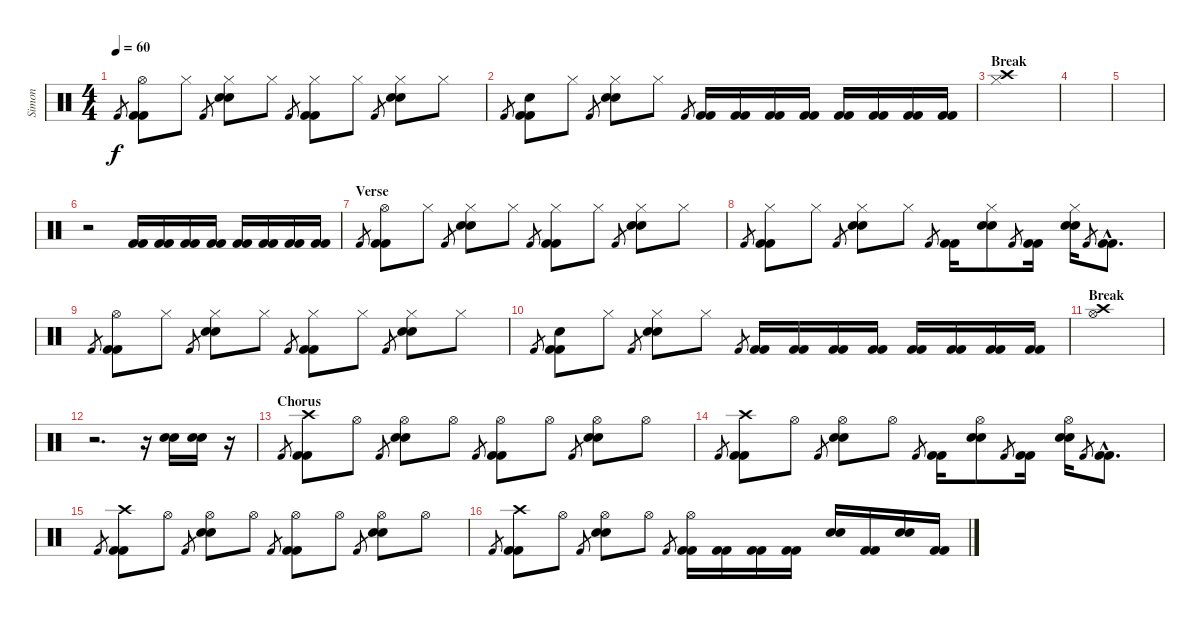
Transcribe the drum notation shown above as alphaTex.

\track ("Simon" "Simon") {instrument percussion}
\staff {score}
\articulation defaults
\ts (4 4)
\tempo 60
\clef neutral
\ks c "Kick (hit) 2".8{gr dy f}
("Hi-Hat (open)" "Kick (hit) 2" "Kick (hit) 2").8 "Hi-Hat (closed)".8 "Kick (hit) 2".8{gr} ("Hi-Hat (closed)" "Electric Snare (hit)" "Electric Snare (hit)").8 "Hi-Hat (closed)".8 "Kick (hit) 2".8{gr} ("Hi-Hat (closed)" "Kick (hit) 2" "Kick (hit) 2").8 "Hi-Hat (closed)".8 "Kick (hit) 2".8{gr} ("Hi-Hat (closed)" "Electric Snare (hit)" "Electric Snare (hit)").8 "Hi-Hat (closed)".8 |
"Kick (hit) 2".8{gr} ("Electric Snare (hit)" "Kick (hit) 2" "Kick (hit) 2").8 "Hi-Hat (closed)".8 "Kick (hit) 2".8{gr} ("Hi-Hat (closed)" "Electric Snare (hit)" "Electric Snare (hit)").8 "Hi-Hat (closed)".8 "Kick (hit) 2".8{gr} ("Kick (hit) 2" "Kick (hit) 2").16 ("Kick (hit) 2" "Kick (hit) 2").16 ("Kick (hit) 2" "Kick (hit) 2").16 ("Kick (hit) 2" "Kick (hit) 2").16 ("Kick (hit) 2" "Kick (hit) 2").16 ("Kick (hit) 2" "Kick (hit) 2").16 ("Kick (hit) 2" "Kick (hit) 2").16 ("Kick (hit) 2" "Kick (hit) 2").16 |
\section ("" "Break")
("Crash high (hit)" "Hi-Hat (closed)").1 |
|
|
r.2 ("Kick (hit) 2" "Kick (hit) 2").16 ("Kick (hit) 2" "Kick (hit) 2").16 ("Kick (hit) 2" "Kick (hit) 2").16 ("Kick (hit) 2" "Kick (hit) 2").16 ("Kick (hit) 2" "Kick (hit) 2").16 ("Kick (hit) 2" "Kick (hit) 2").16 ("Kick (hit) 2" "Kick (hit) 2").16 ("Kick (hit) 2" "Kick (hit) 2").16 |
\section ("" "Verse")
"Kick (hit) 2".8{gr} ("Hi-Hat (open)" "Kick (hit) 2" "Kick (hit) 2").8 "Hi-Hat (closed)".8 "Kick (hit) 2".8{gr} ("Hi-Hat (closed)" "Electric Snare (hit)" "Electric Snare (hit)").8 "Hi-Hat (closed)".8 "Kick (hit) 2".8{gr} ("Hi-Hat (closed)" "Kick (hit) 2" "Kick (hit) 2").8 "Hi-Hat (closed)".8 "Kick (hit) 2".8{gr} ("Hi-Hat (closed)" "Electric Snare (hit)" "Electric Snare (hit)").8 "Hi-Hat (closed)".8 |
"Kick (hit) 2".8{gr} ("Hi-Hat (closed)" "Kick (hit) 2" "Kick (hit) 2").8 "Hi-Hat (closed)".8 "Kick (hit) 2".8{gr} ("Hi-Hat (closed)" "Electric Snare (hit)" "Electric Snare (hit)").8 "Hi-Hat (closed)".8 "Kick (hit) 2".8{gr} ("Kick (hit) 2" "Kick (hit) 2").16 ("Hi-Hat (closed)" "Electric Snare (hit)" "Electric Snare (hit)").8 "Kick (hit) 2".8{gr} ("Kick (hit) 2" "Kick (hit) 2").16 ("Hi-Hat (closed)" "Electric Snare (hit)" "Electric Snare (hit)").16 "Kick (hit) 2".8{gr} ("Kick (hit) 2"{hac} "Kick (hit) 2"{hac}).8{d} |
"Kick (hit) 2".8{gr} ("Hi-Hat (open)" "Kick (hit) 2" "Kick (hit) 2").8 "Hi-Hat (closed)".8 "Kick (hit) 2".8{gr} ("Hi-Hat (closed)" "Electric Snare (hit)" "Electric Snare (hit)").8 "Hi-Hat (closed)".8 "Kick (hit) 2".8{gr} ("Hi-Hat (closed)" "Kick (hit) 2" "Kick (hit) 2").8 "Hi-Hat (closed)".8 "Kick (hit) 2".8{gr} ("Hi-Hat (closed)" "Electric Snare (hit)" "Electric Snare (hit)").8 "Hi-Hat (closed)".8 |
"Kick (hit) 2".8{gr} ("Electric Snare (hit)" "Kick (hit) 2" "Kick (hit) 2").8 "Hi-Hat (closed)".8 "Kick (hit) 2".8{gr} ("Hi-Hat (closed)" "Electric Snare (hit)" "Electric Snare (hit)").8 "Hi-Hat (closed)".8 "Kick (hit) 2".8{gr} ("Kick (hit) 2" "Kick (hit) 2").16 ("Kick (hit) 2" "Kick (hit) 2").16 ("Kick (hit) 2" "Kick (hit) 2").16 ("Kick (hit) 2" "Kick (hit) 2").16 ("Kick (hit) 2" "Kick (hit) 2").16 ("Kick (hit) 2" "Kick (hit) 2").16 ("Kick (hit) 2" "Kick (hit) 2").16 ("Kick (hit) 2" "Kick (hit) 2").16 |
\section ("" "Break")
("Crash high (hit)" "Hi-Hat (open)").1 |
r.2{d} r.16 ("Electric Snare (hit)" "Electric Snare (hit)").16 ("Electric Snare (hit)" "Electric Snare (hit)").16 r.16 |
\section ("" "Chorus")
"Kick (hit) 2".8{gr} ("Crash high (hit)" "Kick (hit) 2" "Kick (hit) 2").8 "Hi-Hat (open)".8 "Kick (hit) 2".8{gr} ("Hi-Hat (open)" "Electric Snare (hit)" "Electric Snare (hit)").8 "Hi-Hat (open)".8 "Kick (hit) 2".8{gr} ("Hi-Hat (open)" "Kick (hit) 2" "Kick (hit) 2").8 "Hi-Hat (open)".8 "Kick (hit) 2".8{gr} ("Hi-Hat (open)" "Electric Snare (hit)" "Electric Snare (hit)").8 "Hi-Hat (open)".8 |
"Kick (hit) 2".8{gr} ("Crash high (hit)" "Kick (hit) 2" "Kick (hit) 2").8 "Hi-Hat (open)".8 "Kick (hit) 2".8{gr} ("Hi-Hat (open)" "Electric Snare (hit)" "Electric Snare (hit)").8 "Hi-Hat (open)".8 "Kick (hit) 2".8{gr} ("Kick (hit) 2" "Kick (hit) 2").16 ("Hi-Hat (open)" "Electric Snare (hit)" "Electric Snare (hit)").8 "Kick (hit) 2".8{gr} ("Kick (hit) 2" "Kick (hit) 2").16 ("Hi-Hat (open)" "Electric Snare (hit)" "Electric Snare (hit)").16 "Kick (hit) 2".8{gr} ("Kick (hit) 2"{hac} "Kick (hit) 2"{hac}).8{d} |
"Kick (hit) 2".8{gr} ("Crash high (hit)" "Kick (hit) 2" "Kick (hit) 2").8 "Hi-Hat (open)".8 "Kick (hit) 2".8{gr} ("Hi-Hat (open)" "Electric Snare (hit)" "Electric Snare (hit)").8 "Hi-Hat (open)".8 "Kick (hit) 2".8{gr} ("Hi-Hat (open)" "Kick (hit) 2" "Kick (hit) 2").8 "Hi-Hat (open)".8 "Kick (hit) 2".8{gr} ("Hi-Hat (open)" "Electric Snare (hit)" "Electric Snare (hit)").8 "Hi-Hat (open)".8 |
"Kick (hit) 2".8{gr} ("Crash high (hit)" "Kick (hit) 2" "Kick (hit) 2").8 "Hi-Hat (open)".8 "Kick (hit) 2".8{gr} ("Hi-Hat (open)" "Electric Snare (hit)" "Electric Snare (hit)").8 "Hi-Hat (open)".8 "Kick (hit) 2".8{gr} ("Hi-Hat (open)" "Kick (hit) 2" "Kick (hit) 2").16 ("Kick (hit) 2" "Kick (hit) 2").16 ("Kick (hit) 2" "Kick (hit) 2").16 ("Kick (hit) 2" "Kick (hit) 2").16 ("Electric Snare (hit)" "Electric Snare (hit)").16 ("Kick (hit) 2" "Kick (hit) 2").16 ("Electric Snare (hit)" "Electric Snare (hit)").16 ("Kick (hit) 2" "Kick (hit) 2").16
